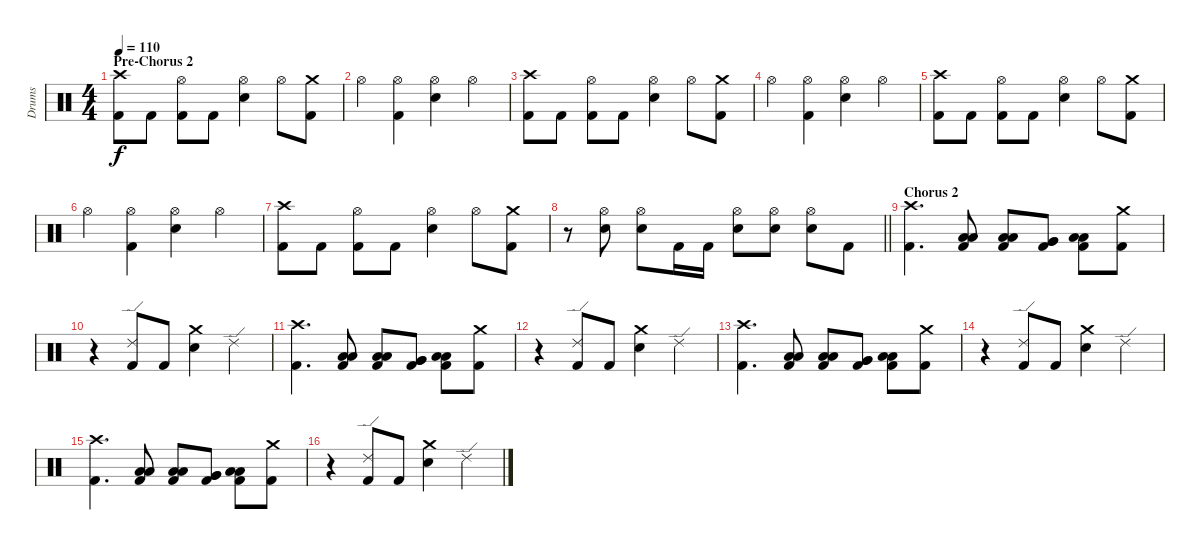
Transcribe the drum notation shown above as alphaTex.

\track ("Drums" "Drums") {instrument percussion}
\staff {score}
\articulation defaults
\ts (4 4)
\section ("" "Pre-Chorus 2")
\tempo 110
\clef neutral
\ks c
("Crash high (hit)" "Kick (hit) 2").8{dy f} "Kick (hit) 2".8 ("Hi-Hat (open)" "Kick (hit) 2").8 "Kick (hit) 2".8 ("Hi-Hat (open)" "Electric Snare (hit)").4 "Hi-Hat (open)".8 ("Crash medium (hit)" "Kick (hit) 2").8 |
"Hi-Hat (open)".4 ("Hi-Hat (open)" "Kick (hit) 2").4 ("Hi-Hat (open)" "Electric Snare (hit)").4 "Hi-Hat (open)".4 |
("Crash high (hit)" "Kick (hit) 2").8 "Kick (hit) 2".8 ("Hi-Hat (open)" "Kick (hit) 2").8 "Kick (hit) 2".8 ("Hi-Hat (open)" "Electric Snare (hit)").4 "Hi-Hat (open)".8 ("Crash medium (hit)" "Kick (hit) 2").8 |
"Hi-Hat (open)".4 ("Hi-Hat (open)" "Kick (hit) 2").4 ("Hi-Hat (open)" "Electric Snare (hit)").4 "Hi-Hat (open)".4 |
("Crash high (hit)" "Kick (hit) 2").8 "Kick (hit) 2".8 ("Hi-Hat (open)" "Kick (hit) 2").8 "Kick (hit) 2".8 ("Hi-Hat (open)" "Electric Snare (hit)").4 "Hi-Hat (open)".8 ("Crash medium (hit)" "Kick (hit) 2").8 |
"Hi-Hat (open)".4 ("Hi-Hat (open)" "Kick (hit) 2").4 ("Hi-Hat (open)" "Electric Snare (hit)").4 "Hi-Hat (open)".4 |
("Crash high (hit)" "Kick (hit) 2").8 "Kick (hit) 2".8 ("Hi-Hat (open)" "Kick (hit) 2").8 "Kick (hit) 2".8 ("Hi-Hat (open)" "Electric Snare (hit)").4 "Hi-Hat (open)".8 ("Crash medium (hit)" "Kick (hit) 2").8 |
\barLineRight lightlight
r.8 ("Hi-Hat (open)" "Electric Snare (hit)").8 ("Hi-Hat (open)" "Electric Snare (hit)").8 "Kick (hit) 2".16 "Kick (hit) 2".16 ("Hi-Hat (open)" "Electric Snare (hit)").8 ("Hi-Hat (open)" "Electric Snare (hit)").8 ("Hi-Hat (open)" "Electric Snare (hit)").8 "Kick (hit) 2".8 |
\section ("" "Chorus 2")
("Crash high (hit)" "Kick (hit) 2").4{d} ("Low Tom (hit)" "Low Tom (hit)" "Kick (hit) 2").8{bu 30} ("Low Tom (hit)" "Low Tom (hit)" "Kick (hit) 2").8{bu 30} ("Very Low Tom (hit)" "Very Low Tom (hit)" "Kick (hit) 2").8{bu 30} ("Low Floor Tom (hit)" "Low Floor Tom (hit)" "Kick (hit) 2").8{bu 30} ("Crash medium (hit)" "Kick (hit) 2").8 |
r.4 ("Ride (edge) 2" "Kick (hit) 2").8 "Kick (hit) 2".8 ("Crash medium (hit)" "Electric Snare (hit)").4 "Ride (edge) 2".4 |
("Crash high (hit)" "Kick (hit) 2").4{d} ("Low Tom (hit)" "Low Tom (hit)" "Kick (hit) 2").8{bu 30} ("Low Tom (hit)" "Low Tom (hit)" "Kick (hit) 2").8{bu 30} ("Very Low Tom (hit)" "Very Low Tom (hit)" "Kick (hit) 2").8{bu 30} ("Low Floor Tom (hit)" "Low Floor Tom (hit)" "Kick (hit) 2").8{bu 30} ("Crash medium (hit)" "Kick (hit) 2").8 |
r.4 ("Ride (edge) 2" "Kick (hit) 2").8 "Kick (hit) 2".8 ("Crash medium (hit)" "Electric Snare (hit)").4 "Ride (edge) 2".4 |
("Crash high (hit)" "Kick (hit) 2").4{d} ("Low Tom (hit)" "Low Tom (hit)" "Kick (hit) 2").8{bu 30} ("Low Tom (hit)" "Low Tom (hit)" "Kick (hit) 2").8{bu 30} ("Very Low Tom (hit)" "Very Low Tom (hit)" "Kick (hit) 2").8{bu 30} ("Low Floor Tom (hit)" "Low Floor Tom (hit)" "Kick (hit) 2").8{bu 30} ("Crash medium (hit)" "Kick (hit) 2").8 |
r.4 ("Ride (edge) 2" "Kick (hit) 2").8 "Kick (hit) 2".8 ("Crash medium (hit)" "Electric Snare (hit)").4 "Ride (edge) 2".4 |
("Crash high (hit)" "Kick (hit) 2").4{d} ("Low Tom (hit)" "Low Tom (hit)" "Kick (hit) 2").8{bu 30} ("Low Tom (hit)" "Low Tom (hit)" "Kick (hit) 2").8{bu 30} ("Very Low Tom (hit)" "Very Low Tom (hit)" "Kick (hit) 2").8{bu 30} ("Low Floor Tom (hit)" "Low Floor Tom (hit)" "Kick (hit) 2").8{bu 30} ("Crash medium (hit)" "Kick (hit) 2").8 |
r.4 ("Ride (edge) 2" "Kick (hit) 2").8 "Kick (hit) 2".8 ("Crash medium (hit)" "Electric Snare (hit)").4 "Ride (edge) 2".4
